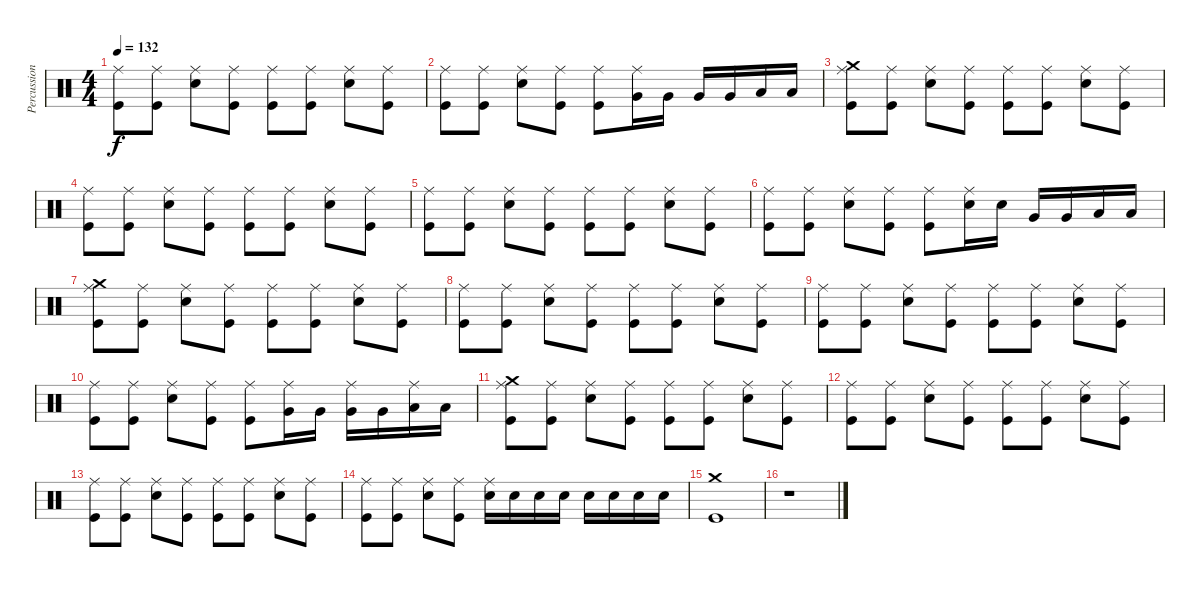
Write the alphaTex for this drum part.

\track ("Percussions" "Percussion") {instrument percussion}
\staff {score}
\articulation defaults
\ts (4 4)
\tempo 132
\clef neutral
\ks c
("Ride (middle)" "Kick (hit)").8{dy f} ("Ride (middle)" "Kick (hit)").8 ("Ride (middle)" "Snare (hit) 2").8 ("Ride (middle)" "Kick (hit)").8 ("Ride (middle)" "Kick (hit)").8 ("Ride (middle)" "Kick (hit)").8 ("Ride (middle)" "Snare (hit) 2").8 ("Ride (middle)" "Kick (hit)").8 |
("Ride (middle)" "Kick (hit)").8 ("Ride (middle)" "Kick (hit)").8 ("Ride (middle)" "Snare (hit) 2").8 ("Ride (middle)" "Kick (hit)").8 ("Ride (middle)" "Kick (hit)").8 ("Ride (middle)" "Very Low Tom (hit)").16 "Very Low Tom (hit)".16 "Very Low Tom (hit)".16 "Very Low Tom (hit)".16 "Low Floor Tom (hit)".16 "Low Floor Tom (hit)".16 |
("Ride (middle)" "Crash medium (hit)" "Kick (hit)").8 ("Ride (middle)" "Kick (hit)").8 ("Ride (middle)" "Snare (hit) 2").8 ("Ride (middle)" "Kick (hit)").8 ("Ride (middle)" "Kick (hit)").8 ("Ride (middle)" "Kick (hit)").8 ("Ride (middle)" "Snare (hit) 2").8 ("Ride (middle)" "Kick (hit)").8 |
("Ride (middle)" "Kick (hit)").8 ("Ride (middle)" "Kick (hit)").8 ("Ride (middle)" "Snare (hit) 2").8 ("Ride (middle)" "Kick (hit)").8 ("Ride (middle)" "Kick (hit)").8 ("Ride (middle)" "Kick (hit)").8 ("Ride (middle)" "Snare (hit) 2").8 ("Ride (middle)" "Kick (hit)").8 |
("Ride (middle)" "Kick (hit)").8 ("Ride (middle)" "Kick (hit)").8 ("Ride (middle)" "Snare (hit) 2").8 ("Ride (middle)" "Kick (hit)").8 ("Ride (middle)" "Kick (hit)").8 ("Ride (middle)" "Kick (hit)").8 ("Ride (middle)" "Snare (hit) 2").8 ("Ride (middle)" "Kick (hit)").8 |
("Ride (middle)" "Kick (hit)").8 ("Ride (middle)" "Kick (hit)").8 ("Ride (middle)" "Snare (hit) 2").8 ("Ride (middle)" "Kick (hit)").8 ("Ride (middle)" "Kick (hit)").8 ("Ride (middle)" "Snare (hit) 2").16 "Snare (hit) 2".16 "Very Low Tom (hit)".16 "Very Low Tom (hit)".16 "Low Floor Tom (hit)".16 "Low Floor Tom (hit)".16 |
("Ride (middle)" "Crash medium (hit)" "Kick (hit)").8 ("Ride (middle)" "Kick (hit)").8 ("Ride (middle)" "Snare (hit) 2").8 ("Ride (middle)" "Kick (hit)").8 ("Ride (middle)" "Kick (hit)").8 ("Ride (middle)" "Kick (hit)").8 ("Ride (middle)" "Snare (hit) 2").8 ("Ride (middle)" "Kick (hit)").8 |
("Ride (middle)" "Kick (hit)").8 ("Ride (middle)" "Kick (hit)").8 ("Ride (middle)" "Snare (hit) 2").8 ("Ride (middle)" "Kick (hit)").8 ("Ride (middle)" "Kick (hit)").8 ("Ride (middle)" "Kick (hit)").8 ("Ride (middle)" "Snare (hit) 2").8 ("Ride (middle)" "Kick (hit)").8 |
("Ride (middle)" "Kick (hit)").8 ("Ride (middle)" "Kick (hit)").8 ("Ride (middle)" "Snare (hit) 2").8 ("Ride (middle)" "Kick (hit)").8 ("Ride (middle)" "Kick (hit)").8 ("Ride (middle)" "Kick (hit)").8 ("Ride (middle)" "Snare (hit) 2").8 ("Ride (middle)" "Kick (hit)").8 |
("Ride (middle)" "Kick (hit)").8 ("Ride (middle)" "Kick (hit)").8 ("Ride (middle)" "Snare (hit) 2").8 ("Ride (middle)" "Kick (hit)").8 ("Ride (middle)" "Kick (hit)").8 ("Ride (middle)" "Very Low Tom (hit)").16 "Very Low Tom (hit)".16 ("Ride (middle)" "Very Low Tom (hit)").16 "Very Low Tom (hit)".16 ("Ride (middle)" "Low Floor Tom (hit)").16 "Low Floor Tom (hit)".16 |
("Ride (middle)" "Crash medium (hit)" "Kick (hit)").8 ("Ride (middle)" "Kick (hit)").8 ("Ride (middle)" "Snare (hit) 2").8 ("Ride (middle)" "Kick (hit)").8 ("Ride (middle)" "Kick (hit)").8 ("Ride (middle)" "Kick (hit)").8 ("Ride (middle)" "Snare (hit) 2").8 ("Ride (middle)" "Kick (hit)").8 |
("Ride (middle)" "Kick (hit)").8 ("Ride (middle)" "Kick (hit)").8 ("Ride (middle)" "Snare (hit) 2").8 ("Ride (middle)" "Kick (hit)").8 ("Ride (middle)" "Kick (hit)").8 ("Ride (middle)" "Kick (hit)").8 ("Ride (middle)" "Snare (hit) 2").8 ("Ride (middle)" "Kick (hit)").8 |
("Ride (middle)" "Kick (hit)").8 ("Ride (middle)" "Kick (hit)").8 ("Ride (middle)" "Snare (hit) 2").8 ("Ride (middle)" "Kick (hit)").8 ("Ride (middle)" "Kick (hit)").8 ("Ride (middle)" "Kick (hit)").8 ("Ride (middle)" "Snare (hit) 2").8 ("Ride (middle)" "Kick (hit)").8 |
("Ride (middle)" "Kick (hit)").8 ("Ride (middle)" "Kick (hit)").8 ("Ride (middle)" "Snare (hit) 2").8 ("Ride (middle)" "Kick (hit)").8 ("Ride (middle)" "Snare (hit) 2").16 "Snare (hit) 2".16 "Snare (hit) 2".16 "Snare (hit) 2".16 "Snare (hit) 2".16 "Snare (hit) 2".16 "Snare (hit) 2".16 "Snare (hit) 2".16 |
("Crash medium (hit)" "Kick (hit)").1 |
r.1
